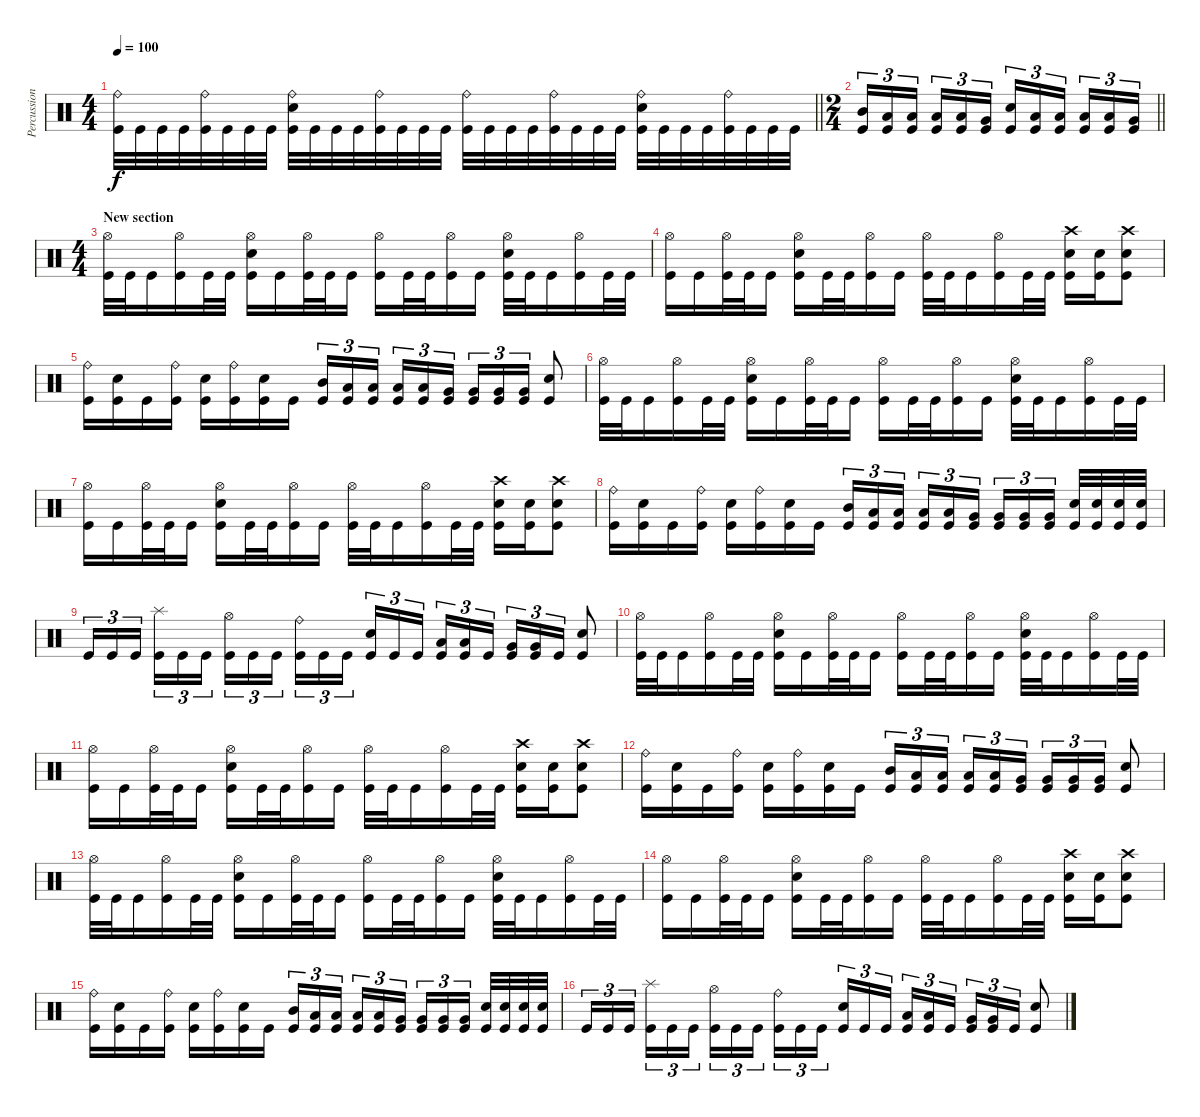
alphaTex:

\track ("Percussions" "Percussion") {instrument percussion}
\staff {score}
\articulation defaults
\ts (4 4)
\tempo 100
\clef neutral
\barLineRight lightlight
\ks c
("Ride (bell)" "Kick (hit)").32{dy f} "Kick (hit)".32 "Kick (hit)".32 "Kick (hit)".32 ("Ride (bell)" "Kick (hit)").32 "Kick (hit)".32 "Kick (hit)".32 "Kick (hit)".32 ("Ride (bell)" "Electric Snare (hit)" "Kick (hit)").32 "Kick (hit)".32 "Kick (hit)".32 "Kick (hit)".32 ("Ride (bell)" "Kick (hit)").32 "Kick (hit)".32 "Kick (hit)".32 "Kick (hit)".32 ("Ride (bell)" "Kick (hit)").32 "Kick (hit)".32 "Kick (hit)".32 "Kick (hit)".32 ("Ride (bell)" "Kick (hit)").32 "Kick (hit)".32 "Kick (hit)".32 "Kick (hit)".32 ("Ride (bell)" "Electric Snare (hit)" "Kick (hit)").32 "Kick (hit)".32 "Kick (hit)".32 "Kick (hit)".32 ("Ride (bell)" "Kick (hit)").32 "Kick (hit)".32 "Kick (hit)".32 "Kick (hit)".32 |
\ts (2 4)
\section ("" "")
\barLineRight lightlight
("Mid Tom (hit)" "Kick (hit)").16{tu (3 2)} ("Low Tom (hit)" "Kick (hit)").16{tu (3 2)} ("Low Tom (hit)" "Kick (hit)").16{tu (3 2) beam splitsecondary} ("Low Tom (hit)" "Kick (hit)").16{tu (3 2)} ("Low Tom (hit)" "Kick (hit)").16{tu (3 2)} ("Very Low Tom (hit)" "Kick (hit)").16{tu (3 2)} ("Electric Snare (hit)" "Kick (hit)").16{tu (3 2)} ("Low Tom (hit)" "Kick (hit)").16{tu (3 2)} ("Low Tom (hit)" "Kick (hit)").16{tu (3 2) beam splitsecondary} ("Low Tom (hit)" "Kick (hit)").16{tu (3 2)} ("Low Tom (hit)" "Kick (hit)").16{tu (3 2)} ("Very Low Tom (hit)" "Kick (hit)").16{tu (3 2)} |
\ts (4 4)
\section ("" "New section")
("Hi-Hat (open)" "Kick (hit)").32 "Kick (hit)".32 "Kick (hit)".16 ("Hi-Hat (open)" "Kick (hit)").16 "Kick (hit)".32 "Kick (hit)".32 ("Hi-Hat (open)" "Electric Snare (hit)" "Kick (hit)").16 "Kick (hit)".16 ("Hi-Hat (open)" "Kick (hit)").32 "Kick (hit)".32 "Kick (hit)".16 ("Hi-Hat (open)" "Kick (hit)").16 "Kick (hit)".32 "Kick (hit)".32 ("Hi-Hat (open)" "Kick (hit)").16 "Kick (hit)".16 ("Hi-Hat (open)" "Electric Snare (hit)" "Kick (hit)").32 "Kick (hit)".32 "Kick (hit)".16 ("Hi-Hat (open)" "Kick (hit)").16 "Kick (hit)".32 "Kick (hit)".32 |
("Hi-Hat (open)" "Kick (hit)").16 "Kick (hit)".16 ("Hi-Hat (open)" "Kick (hit)").32 "Kick (hit)".32 "Kick (hit)".16 ("Hi-Hat (open)" "Electric Snare (hit)" "Kick (hit)").16 "Kick (hit)".32 "Kick (hit)".32 ("Hi-Hat (open)" "Kick (hit)").16 "Kick (hit)".16 ("Hi-Hat (open)" "Kick (hit)").32 "Kick (hit)".32 "Kick (hit)".16 ("Hi-Hat (open)" "Kick (hit)").16 "Kick (hit)".32 "Kick (hit)".32 ("Crash high (hit)" "Electric Snare (hit)" "Kick (hit)").16 ("Electric Snare (hit)" "Kick (hit)").16 ("Crash high (hit)" "Electric Snare (hit)" "Kick (hit)").8 |
("Ride (bell)" "Kick (hit)").16 ("Electric Snare (hit)" "Kick (hit)").16 "Kick (hit)".16 ("Ride (bell)" "Kick (hit)").16 ("Electric Snare (hit)" "Kick (hit)").16 ("Ride (bell)" "Kick (hit)").16 ("Electric Snare (hit)" "Kick (hit)").16 "Kick (hit)".16 ("Mid Tom (hit)" "Kick (hit)").16{tu (3 2)} ("Low Tom (hit)" "Kick (hit)").16{tu (3 2)} ("Low Tom (hit)" "Kick (hit)").16{tu (3 2) beam splitsecondary} ("Low Tom (hit)" "Kick (hit)").16{tu (3 2)} ("Low Tom (hit)" "Kick (hit)").16{tu (3 2)} ("Very Low Tom (hit)" "Kick (hit)").16{tu (3 2)} ("Very Low Tom (hit)" "Kick (hit)").16{tu (3 2)} ("Very Low Tom (hit)" "Kick (hit)").16{tu (3 2)} ("Very Low Tom (hit)" "Kick (hit)").16{tu (3 2)} ("Electric Snare (hit)" "Kick (hit)").8 |
("Hi-Hat (open)" "Kick (hit)").32 "Kick (hit)".32 "Kick (hit)".16 ("Hi-Hat (open)" "Kick (hit)").16 "Kick (hit)".32 "Kick (hit)".32 ("Hi-Hat (open)" "Electric Snare (hit)" "Kick (hit)").16 "Kick (hit)".16 ("Hi-Hat (open)" "Kick (hit)").32 "Kick (hit)".32 "Kick (hit)".16 ("Hi-Hat (open)" "Kick (hit)").16 "Kick (hit)".32 "Kick (hit)".32 ("Hi-Hat (open)" "Kick (hit)").16 "Kick (hit)".16 ("Hi-Hat (open)" "Electric Snare (hit)" "Kick (hit)").32 "Kick (hit)".32 "Kick (hit)".16 ("Hi-Hat (open)" "Kick (hit)").16 "Kick (hit)".32 "Kick (hit)".32 |
("Hi-Hat (open)" "Kick (hit)").16 "Kick (hit)".16 ("Hi-Hat (open)" "Kick (hit)").32 "Kick (hit)".32 "Kick (hit)".16 ("Hi-Hat (open)" "Electric Snare (hit)" "Kick (hit)").16 "Kick (hit)".32 "Kick (hit)".32 ("Hi-Hat (open)" "Kick (hit)").16 "Kick (hit)".16 ("Hi-Hat (open)" "Kick (hit)").32 "Kick (hit)".32 "Kick (hit)".16 ("Hi-Hat (open)" "Kick (hit)").16 "Kick (hit)".32 "Kick (hit)".32 ("Crash high (hit)" "Electric Snare (hit)" "Kick (hit)").16 ("Electric Snare (hit)" "Kick (hit)").16 ("Crash high (hit)" "Electric Snare (hit)" "Kick (hit)").8 |
("Ride (bell)" "Kick (hit)").16 ("Electric Snare (hit)" "Kick (hit)").16 "Kick (hit)".16 ("Ride (bell)" "Kick (hit)").16 ("Electric Snare (hit)" "Kick (hit)").16 ("Ride (bell)" "Kick (hit)").16 ("Electric Snare (hit)" "Kick (hit)").16 "Kick (hit)".16 ("Mid Tom (hit)" "Kick (hit)").16{tu (3 2)} ("Low Tom (hit)" "Kick (hit)").16{tu (3 2)} ("Low Tom (hit)" "Kick (hit)").16{tu (3 2) beam splitsecondary} ("Low Tom (hit)" "Kick (hit)").16{tu (3 2)} ("Low Tom (hit)" "Kick (hit)").16{tu (3 2)} ("Very Low Tom (hit)" "Kick (hit)").16{tu (3 2)} ("Very Low Tom (hit)" "Kick (hit)").16{tu (3 2)} ("Very Low Tom (hit)" "Kick (hit)").16{tu (3 2)} ("Very Low Tom (hit)" "Kick (hit)").16{tu (3 2) beam splitsecondary} ("Electric Snare (hit)" "Kick (hit)").32 ("Electric Snare (hit)" "Kick (hit)").32 ("Electric Snare (hit)" "Kick (hit)").32 ("Electric Snare (hit)" "Kick (hit)").32 |
"Kick (hit)".16{tu (3 2)} "Kick (hit)".16{tu (3 2)} "Kick (hit)".16{tu (3 2) beam splitsecondary} ("Splash (hit)" "Kick (hit)").16{tu (3 2)} "Kick (hit)".16{tu (3 2)} "Kick (hit)".16{tu (3 2)} ("Hi-Hat (open)" "Kick (hit)").16{tu (3 2)} "Kick (hit)".16{tu (3 2)} "Kick (hit)".16{tu (3 2) beam splitsecondary} ("Ride (bell)" "Kick (hit)").16{tu (3 2)} "Kick (hit)".16{tu (3 2)} "Kick (hit)".16{tu (3 2)} ("Electric Snare (hit)" "Kick (hit)").16{tu (3 2)} "Kick (hit)".16{tu (3 2)} "Kick (hit)".16{tu (3 2) beam splitsecondary} ("Low Tom (hit)" "Kick (hit)").16{tu (3 2)} ("Low Tom (hit)" "Kick (hit)").16{tu (3 2)} "Kick (hit)".16{tu (3 2)} ("Very Low Tom (hit)" "Kick (hit)").16{tu (3 2)} ("Very Low Tom (hit)" "Kick (hit)").16{tu (3 2)} "Kick (hit)".16{tu (3 2)} ("Electric Snare (hit)" "Kick (hit)").8 |
("Hi-Hat (open)" "Kick (hit)").32 "Kick (hit)".32 "Kick (hit)".16 ("Hi-Hat (open)" "Kick (hit)").16 "Kick (hit)".32 "Kick (hit)".32 ("Hi-Hat (open)" "Electric Snare (hit)" "Kick (hit)").16 "Kick (hit)".16 ("Hi-Hat (open)" "Kick (hit)").32 "Kick (hit)".32 "Kick (hit)".16 ("Hi-Hat (open)" "Kick (hit)").16 "Kick (hit)".32 "Kick (hit)".32 ("Hi-Hat (open)" "Kick (hit)").16 "Kick (hit)".16 ("Hi-Hat (open)" "Electric Snare (hit)" "Kick (hit)").32 "Kick (hit)".32 "Kick (hit)".16 ("Hi-Hat (open)" "Kick (hit)").16 "Kick (hit)".32 "Kick (hit)".32 |
("Hi-Hat (open)" "Kick (hit)").16 "Kick (hit)".16 ("Hi-Hat (open)" "Kick (hit)").32 "Kick (hit)".32 "Kick (hit)".16 ("Hi-Hat (open)" "Electric Snare (hit)" "Kick (hit)").16 "Kick (hit)".32 "Kick (hit)".32 ("Hi-Hat (open)" "Kick (hit)").16 "Kick (hit)".16 ("Hi-Hat (open)" "Kick (hit)").32 "Kick (hit)".32 "Kick (hit)".16 ("Hi-Hat (open)" "Kick (hit)").16 "Kick (hit)".32 "Kick (hit)".32 ("Crash high (hit)" "Electric Snare (hit)" "Kick (hit)").16 ("Electric Snare (hit)" "Kick (hit)").16 ("Crash high (hit)" "Electric Snare (hit)" "Kick (hit)").8 |
("Ride (bell)" "Kick (hit)").16 ("Electric Snare (hit)" "Kick (hit)").16 "Kick (hit)".16 ("Ride (bell)" "Kick (hit)").16 ("Electric Snare (hit)" "Kick (hit)").16 ("Ride (bell)" "Kick (hit)").16 ("Electric Snare (hit)" "Kick (hit)").16 "Kick (hit)".16 ("Mid Tom (hit)" "Kick (hit)").16{tu (3 2)} ("Low Tom (hit)" "Kick (hit)").16{tu (3 2)} ("Low Tom (hit)" "Kick (hit)").16{tu (3 2) beam splitsecondary} ("Low Tom (hit)" "Kick (hit)").16{tu (3 2)} ("Low Tom (hit)" "Kick (hit)").16{tu (3 2)} ("Very Low Tom (hit)" "Kick (hit)").16{tu (3 2)} ("Very Low Tom (hit)" "Kick (hit)").16{tu (3 2)} ("Very Low Tom (hit)" "Kick (hit)").16{tu (3 2)} ("Very Low Tom (hit)" "Kick (hit)").16{tu (3 2)} ("Electric Snare (hit)" "Kick (hit)").8 |
("Hi-Hat (open)" "Kick (hit)").32 "Kick (hit)".32 "Kick (hit)".16 ("Hi-Hat (open)" "Kick (hit)").16 "Kick (hit)".32 "Kick (hit)".32 ("Hi-Hat (open)" "Electric Snare (hit)" "Kick (hit)").16 "Kick (hit)".16 ("Hi-Hat (open)" "Kick (hit)").32 "Kick (hit)".32 "Kick (hit)".16 ("Hi-Hat (open)" "Kick (hit)").16 "Kick (hit)".32 "Kick (hit)".32 ("Hi-Hat (open)" "Kick (hit)").16 "Kick (hit)".16 ("Hi-Hat (open)" "Electric Snare (hit)" "Kick (hit)").32 "Kick (hit)".32 "Kick (hit)".16 ("Hi-Hat (open)" "Kick (hit)").16 "Kick (hit)".32 "Kick (hit)".32 |
("Hi-Hat (open)" "Kick (hit)").16 "Kick (hit)".16 ("Hi-Hat (open)" "Kick (hit)").32 "Kick (hit)".32 "Kick (hit)".16 ("Hi-Hat (open)" "Electric Snare (hit)" "Kick (hit)").16 "Kick (hit)".32 "Kick (hit)".32 ("Hi-Hat (open)" "Kick (hit)").16 "Kick (hit)".16 ("Hi-Hat (open)" "Kick (hit)").32 "Kick (hit)".32 "Kick (hit)".16 ("Hi-Hat (open)" "Kick (hit)").16 "Kick (hit)".32 "Kick (hit)".32 ("Crash high (hit)" "Electric Snare (hit)" "Kick (hit)").16 ("Electric Snare (hit)" "Kick (hit)").16 ("Crash high (hit)" "Electric Snare (hit)" "Kick (hit)").8 |
("Ride (bell)" "Kick (hit)").16 ("Electric Snare (hit)" "Kick (hit)").16 "Kick (hit)".16 ("Ride (bell)" "Kick (hit)").16 ("Electric Snare (hit)" "Kick (hit)").16 ("Ride (bell)" "Kick (hit)").16 ("Electric Snare (hit)" "Kick (hit)").16 "Kick (hit)".16 ("Mid Tom (hit)" "Kick (hit)").16{tu (3 2)} ("Low Tom (hit)" "Kick (hit)").16{tu (3 2)} ("Low Tom (hit)" "Kick (hit)").16{tu (3 2) beam splitsecondary} ("Low Tom (hit)" "Kick (hit)").16{tu (3 2)} ("Low Tom (hit)" "Kick (hit)").16{tu (3 2)} ("Very Low Tom (hit)" "Kick (hit)").16{tu (3 2)} ("Very Low Tom (hit)" "Kick (hit)").16{tu (3 2)} ("Very Low Tom (hit)" "Kick (hit)").16{tu (3 2)} ("Very Low Tom (hit)" "Kick (hit)").16{tu (3 2) beam splitsecondary} ("Electric Snare (hit)" "Kick (hit)").32 ("Electric Snare (hit)" "Kick (hit)").32 ("Electric Snare (hit)" "Kick (hit)").32 ("Electric Snare (hit)" "Kick (hit)").32 |
"Kick (hit)".16{tu (3 2)} "Kick (hit)".16{tu (3 2)} "Kick (hit)".16{tu (3 2) beam splitsecondary} ("Splash (hit)" "Kick (hit)").16{tu (3 2)} "Kick (hit)".16{tu (3 2)} "Kick (hit)".16{tu (3 2)} ("Hi-Hat (open)" "Kick (hit)").16{tu (3 2)} "Kick (hit)".16{tu (3 2)} "Kick (hit)".16{tu (3 2) beam splitsecondary} ("Ride (bell)" "Kick (hit)").16{tu (3 2)} "Kick (hit)".16{tu (3 2)} "Kick (hit)".16{tu (3 2)} ("Electric Snare (hit)" "Kick (hit)").16{tu (3 2)} "Kick (hit)".16{tu (3 2)} "Kick (hit)".16{tu (3 2) beam splitsecondary} ("Low Tom (hit)" "Kick (hit)").16{tu (3 2)} ("Low Tom (hit)" "Kick (hit)").16{tu (3 2)} "Kick (hit)".16{tu (3 2)} ("Very Low Tom (hit)" "Kick (hit)").16{tu (3 2)} ("Very Low Tom (hit)" "Kick (hit)").16{tu (3 2)} "Kick (hit)".16{tu (3 2)} ("Electric Snare (hit)" "Kick (hit)").8
